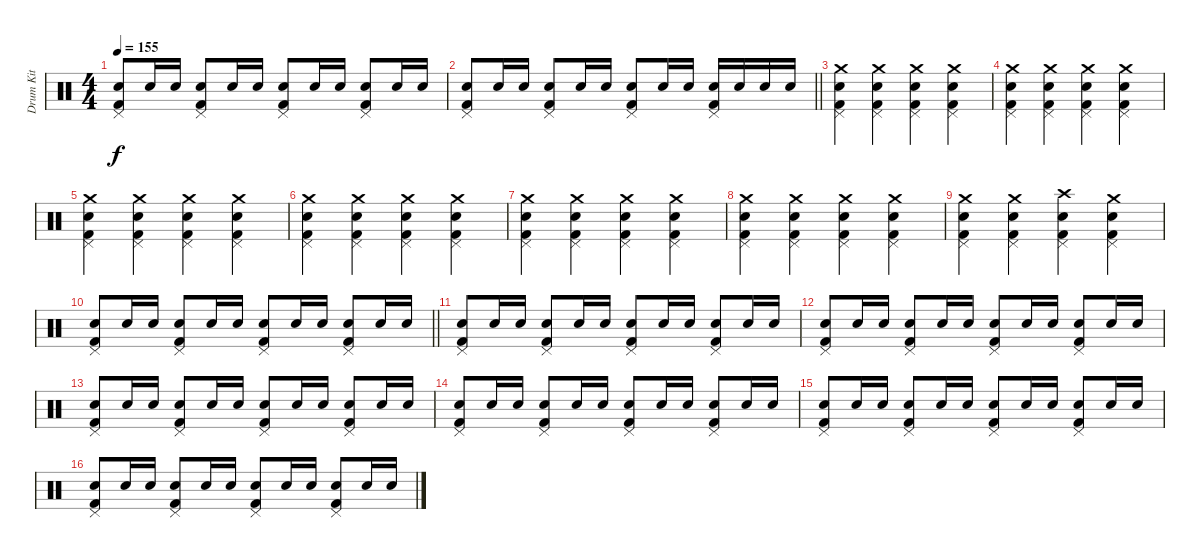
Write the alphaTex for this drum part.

\track ("Drum Kit" "Drum Kit") {instrument percussion}
\staff {score}
\articulation defaults
\ts (4 4)
\tempo 155
\clef neutral
\ks c
("Pedal Hi-Hat (hit)" "Snare (hit) 2" "Kick (hit) 2").8{dy f} "Snare (hit) 2".16 "Snare (hit) 2".16 ("Pedal Hi-Hat (hit)" "Snare (hit) 2" "Kick (hit) 2").8 "Snare (hit) 2".16 "Snare (hit) 2".16 ("Pedal Hi-Hat (hit)" "Snare (hit) 2" "Kick (hit) 2").8 "Snare (hit) 2".16 "Snare (hit) 2".16 ("Pedal Hi-Hat (hit)" "Snare (hit) 2" "Kick (hit) 2").8 "Snare (hit) 2".16 "Snare (hit) 2".16 |
\barLineRight lightlight
("Pedal Hi-Hat (hit)" "Snare (hit) 2" "Kick (hit) 2").8 "Snare (hit) 2".16 "Snare (hit) 2".16 ("Pedal Hi-Hat (hit)" "Snare (hit) 2" "Kick (hit) 2").8 "Snare (hit) 2".16 "Snare (hit) 2".16 ("Pedal Hi-Hat (hit)" "Snare (hit) 2" "Kick (hit) 2").8 "Snare (hit) 2".16 "Snare (hit) 2".16 ("Pedal Hi-Hat (hit)" "Snare (hit) 2" "Kick (hit) 2").16 "Snare (hit) 2".16 "Snare (hit) 2".16 "Snare (hit) 2".16 |
("Crash medium (hit)" "Pedal Hi-Hat (hit)" "Snare (hit) 2" "Kick (hit) 2").4 ("Crash medium (hit)" "Pedal Hi-Hat (hit)" "Snare (hit) 2" "Kick (hit) 2").4 ("Crash medium (hit)" "Pedal Hi-Hat (hit)" "Snare (hit) 2" "Kick (hit) 2").4 ("Crash medium (hit)" "Pedal Hi-Hat (hit)" "Snare (hit) 2" "Kick (hit) 2").4 |
("Crash medium (hit)" "Pedal Hi-Hat (hit)" "Snare (hit) 2" "Kick (hit) 2").4 ("Crash medium (hit)" "Pedal Hi-Hat (hit)" "Snare (hit) 2" "Kick (hit) 2").4 ("Crash medium (hit)" "Pedal Hi-Hat (hit)" "Snare (hit) 2" "Kick (hit) 2").4 ("Crash medium (hit)" "Pedal Hi-Hat (hit)" "Snare (hit) 2" "Kick (hit) 2").4 |
("Crash medium (hit)" "Pedal Hi-Hat (hit)" "Snare (hit) 2" "Kick (hit) 2").4 ("Crash medium (hit)" "Pedal Hi-Hat (hit)" "Snare (hit) 2" "Kick (hit) 2").4 ("Crash medium (hit)" "Pedal Hi-Hat (hit)" "Snare (hit) 2" "Kick (hit) 2").4 ("Crash medium (hit)" "Pedal Hi-Hat (hit)" "Snare (hit) 2" "Kick (hit) 2").4 |
("Crash medium (hit)" "Pedal Hi-Hat (hit)" "Snare (hit) 2" "Kick (hit) 2").4 ("Crash medium (hit)" "Pedal Hi-Hat (hit)" "Snare (hit) 2" "Kick (hit) 2").4 ("Crash medium (hit)" "Pedal Hi-Hat (hit)" "Snare (hit) 2" "Kick (hit) 2").4 ("Crash medium (hit)" "Pedal Hi-Hat (hit)" "Snare (hit) 2" "Kick (hit) 2").4 |
("Crash medium (hit)" "Pedal Hi-Hat (hit)" "Snare (hit) 2" "Kick (hit) 2").4 ("Crash medium (hit)" "Pedal Hi-Hat (hit)" "Snare (hit) 2" "Kick (hit) 2").4 ("Crash medium (hit)" "Pedal Hi-Hat (hit)" "Snare (hit) 2" "Kick (hit) 2").4 ("Crash medium (hit)" "Pedal Hi-Hat (hit)" "Snare (hit) 2" "Kick (hit) 2").4 |
("Crash medium (hit)" "Pedal Hi-Hat (hit)" "Snare (hit) 2" "Kick (hit) 2").4 ("Crash medium (hit)" "Pedal Hi-Hat (hit)" "Snare (hit) 2" "Kick (hit) 2").4 ("Crash medium (hit)" "Pedal Hi-Hat (hit)" "Snare (hit) 2" "Kick (hit) 2").4 ("Crash medium (hit)" "Pedal Hi-Hat (hit)" "Snare (hit) 2" "Kick (hit) 2").4 |
("Crash medium (hit)" "Pedal Hi-Hat (hit)" "Snare (hit) 2" "Kick (hit) 2").4 ("Crash medium (hit)" "Pedal Hi-Hat (hit)" "Snare (hit) 2" "Kick (hit) 2").4 ("Crash high (hit)" "Pedal Hi-Hat (hit)" "Snare (hit) 2" "Kick (hit) 2").4 ("Crash medium (hit)" "Pedal Hi-Hat (hit)" "Snare (hit) 2" "Kick (hit) 2").4 |
\barLineRight lightlight
("Pedal Hi-Hat (hit)" "Snare (hit) 2" "Kick (hit) 2").8{volume 8} "Snare (hit) 2".16 "Snare (hit) 2".16 ("Pedal Hi-Hat (hit)" "Snare (hit) 2" "Kick (hit) 2").8 "Snare (hit) 2".16 "Snare (hit) 2".16 ("Pedal Hi-Hat (hit)" "Snare (hit) 2" "Kick (hit) 2").8 "Snare (hit) 2".16 "Snare (hit) 2".16 ("Pedal Hi-Hat (hit)" "Snare (hit) 2" "Kick (hit) 2").8 "Snare (hit) 2".16 "Snare (hit) 2".16 |
("Pedal Hi-Hat (hit)" "Snare (hit) 2" "Kick (hit) 2").8 "Snare (hit) 2".16 "Snare (hit) 2".16 ("Pedal Hi-Hat (hit)" "Snare (hit) 2" "Kick (hit) 2").8 "Snare (hit) 2".16 "Snare (hit) 2".16 ("Pedal Hi-Hat (hit)" "Snare (hit) 2" "Kick (hit) 2").8 "Snare (hit) 2".16 "Snare (hit) 2".16 ("Pedal Hi-Hat (hit)" "Snare (hit) 2" "Kick (hit) 2").8 "Snare (hit) 2".16 "Snare (hit) 2".16 |
("Pedal Hi-Hat (hit)" "Snare (hit) 2" "Kick (hit) 2").8 "Snare (hit) 2".16 "Snare (hit) 2".16 ("Pedal Hi-Hat (hit)" "Snare (hit) 2" "Kick (hit) 2").8 "Snare (hit) 2".16 "Snare (hit) 2".16 ("Pedal Hi-Hat (hit)" "Snare (hit) 2" "Kick (hit) 2").8 "Snare (hit) 2".16 "Snare (hit) 2".16 ("Pedal Hi-Hat (hit)" "Snare (hit) 2" "Kick (hit) 2").8 "Snare (hit) 2".16 "Snare (hit) 2".16 |
("Pedal Hi-Hat (hit)" "Snare (hit) 2" "Kick (hit) 2").8 "Snare (hit) 2".16 "Snare (hit) 2".16 ("Pedal Hi-Hat (hit)" "Snare (hit) 2" "Kick (hit) 2").8 "Snare (hit) 2".16 "Snare (hit) 2".16 ("Pedal Hi-Hat (hit)" "Snare (hit) 2" "Kick (hit) 2").8 "Snare (hit) 2".16 "Snare (hit) 2".16 ("Pedal Hi-Hat (hit)" "Snare (hit) 2" "Kick (hit) 2").8 "Snare (hit) 2".16 "Snare (hit) 2".16 |
("Pedal Hi-Hat (hit)" "Snare (hit) 2" "Kick (hit) 2").8 "Snare (hit) 2".16 "Snare (hit) 2".16 ("Pedal Hi-Hat (hit)" "Snare (hit) 2" "Kick (hit) 2").8 "Snare (hit) 2".16 "Snare (hit) 2".16 ("Pedal Hi-Hat (hit)" "Snare (hit) 2" "Kick (hit) 2").8 "Snare (hit) 2".16 "Snare (hit) 2".16 ("Pedal Hi-Hat (hit)" "Snare (hit) 2" "Kick (hit) 2").8 "Snare (hit) 2".16 "Snare (hit) 2".16 |
("Pedal Hi-Hat (hit)" "Snare (hit) 2" "Kick (hit) 2").8 "Snare (hit) 2".16 "Snare (hit) 2".16 ("Pedal Hi-Hat (hit)" "Snare (hit) 2" "Kick (hit) 2").8 "Snare (hit) 2".16 "Snare (hit) 2".16 ("Pedal Hi-Hat (hit)" "Snare (hit) 2" "Kick (hit) 2").8 "Snare (hit) 2".16 "Snare (hit) 2".16 ("Pedal Hi-Hat (hit)" "Snare (hit) 2" "Kick (hit) 2").8 "Snare (hit) 2".16 "Snare (hit) 2".16 |
("Pedal Hi-Hat (hit)" "Snare (hit) 2" "Kick (hit) 2").8 "Snare (hit) 2".16 "Snare (hit) 2".16 ("Pedal Hi-Hat (hit)" "Snare (hit) 2" "Kick (hit) 2").8 "Snare (hit) 2".16 "Snare (hit) 2".16 ("Pedal Hi-Hat (hit)" "Snare (hit) 2" "Kick (hit) 2").8 "Snare (hit) 2".16 "Snare (hit) 2".16 ("Pedal Hi-Hat (hit)" "Snare (hit) 2" "Kick (hit) 2").8 "Snare (hit) 2".16 "Snare (hit) 2".16
